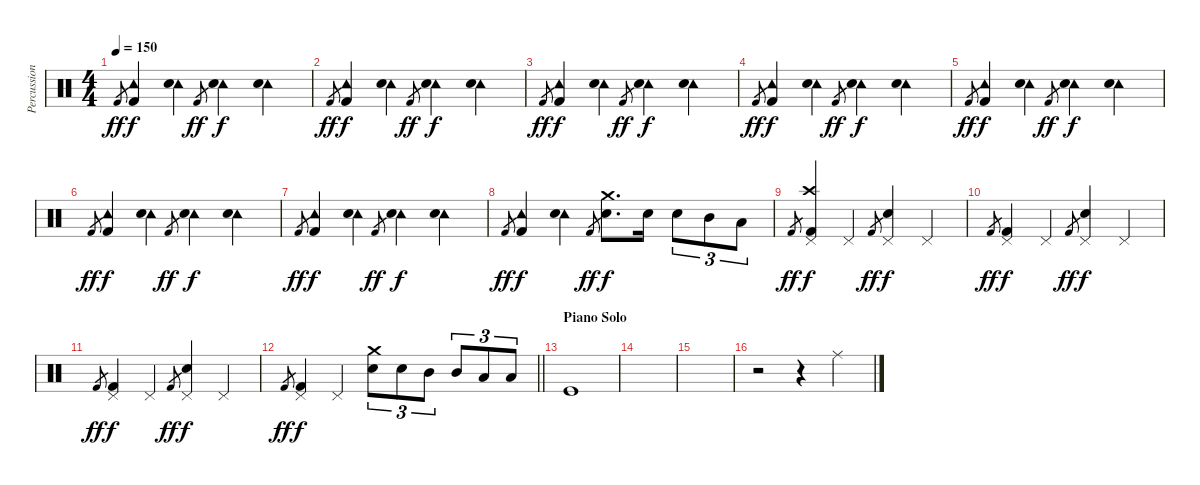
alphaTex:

\track ("Percussion" "Percussion") {instrument percussion}
\staff {score}
\articulation defaults
\ts (4 4)
\tempo 150
\clef neutral
\ks c "Kick (hit) 2".8{gr dy ff}
("Tambourine (hit)" "Kick (hit) 2").4{dy f} ("Tambourine (hit)" "Hand Clap (hit)").4 "Kick (hit) 2".8{gr dy ff} ("Tambourine (hit)" "Snare (hit) 2").4{dy f} ("Tambourine (hit)" "Hand Clap (hit)").4 |
"Kick (hit) 2".8{gr dy ff} ("Tambourine (hit)" "Kick (hit) 2").4{dy f} ("Tambourine (hit)" "Hand Clap (hit)").4 "Kick (hit) 2".8{gr dy ff} ("Tambourine (hit)" "Snare (hit) 2").4{dy f} ("Tambourine (hit)" "Hand Clap (hit)").4 |
"Kick (hit) 2".8{gr dy ff} ("Tambourine (hit)" "Kick (hit) 2").4{dy f} ("Tambourine (hit)" "Hand Clap (hit)").4 "Kick (hit) 2".8{gr dy ff} ("Tambourine (hit)" "Snare (hit) 2").4{dy f} ("Tambourine (hit)" "Hand Clap (hit)").4 |
"Kick (hit) 2".8{gr dy ff} ("Tambourine (hit)" "Kick (hit) 2").4{dy f} ("Tambourine (hit)" "Hand Clap (hit)").4 "Kick (hit) 2".8{gr dy ff} ("Tambourine (hit)" "Snare (hit) 2").4{dy f} ("Tambourine (hit)" "Hand Clap (hit)").4 |
"Kick (hit) 2".8{gr dy ff} ("Tambourine (hit)" "Kick (hit) 2").4{dy f} ("Tambourine (hit)" "Hand Clap (hit)").4 "Kick (hit) 2".8{gr dy ff} ("Tambourine (hit)" "Snare (hit) 2").4{dy f} ("Tambourine (hit)" "Hand Clap (hit)").4 |
"Kick (hit) 2".8{gr dy ff} ("Tambourine (hit)" "Kick (hit) 2").4{dy f} ("Tambourine (hit)" "Hand Clap (hit)").4 "Kick (hit) 2".8{gr dy ff} ("Tambourine (hit)" "Snare (hit) 2").4{dy f} ("Tambourine (hit)" "Hand Clap (hit)").4 |
"Kick (hit) 2".8{gr dy ff} ("Tambourine (hit)" "Kick (hit) 2").4{dy f} ("Tambourine (hit)" "Hand Clap (hit)").4 "Kick (hit) 2".8{gr dy ff} ("Tambourine (hit)" "Snare (hit) 2").4{dy f} ("Tambourine (hit)" "Hand Clap (hit)").4 |
"Kick (hit) 2".8{gr dy ff} ("Tambourine (hit)" "Kick (hit) 2").4{dy f} ("Tambourine (hit)" "Hand Clap (hit)").4 "Kick (hit) 2".8{gr dy ff} ("Crash medium (hit)" "Snare (hit) 2").8{d dy f} "Snare (hit) 2".16 "Snare (hit) 2".8{tu (3 2)} "Mid Tom (hit)".8{tu (3 2)} "Low Tom (hit)".8{tu (3 2)} |
"Kick (hit) 2".8{gr dy ff} ("Crash high (hit)" "Kick (hit) 2" "Pedal Hi-Hat (hit)").4{dy f} "Pedal Hi-Hat (hit)".4 "Kick (hit) 2".8{gr dy ff} ("Snare (hit) 2" "Pedal Hi-Hat (hit)").4{dy f} "Pedal Hi-Hat (hit)".4 |
"Kick (hit) 2".8{gr dy ff} ("Kick (hit) 2" "Pedal Hi-Hat (hit)").4{dy f} "Pedal Hi-Hat (hit)".4 "Kick (hit) 2".8{gr dy ff} ("Snare (hit) 2" "Pedal Hi-Hat (hit)").4{dy f} "Pedal Hi-Hat (hit)".4 |
"Kick (hit) 2".8{gr dy ff} ("Kick (hit) 2" "Pedal Hi-Hat (hit)").4{dy f} "Pedal Hi-Hat (hit)".4 "Kick (hit) 2".8{gr dy ff} ("Snare (hit) 2" "Pedal Hi-Hat (hit)").4{dy f} "Pedal Hi-Hat (hit)".4 |
\barLineRight lightlight "Kick (hit) 2".8{gr dy ff}
("Kick (hit) 2" "Pedal Hi-Hat (hit)").4{dy f} "Pedal Hi-Hat (hit)".4 ("Crash medium (hit)" "Snare (hit) 2").8{tu (3 2)} "Snare (hit) 2".8{tu (3 2)} "Mid Tom (hit)".8{tu (3 2)} "Mid Tom (hit)".8{tu (3 2)} "Low Tom (hit)".8{tu (3 2)} "Low Floor Tom (hit)".8{tu (3 2)} |
\section ("" "Piano Solo")
"Kick (hit)".1 |
|
|
r.2 r.4 "Ride (middle)".4
